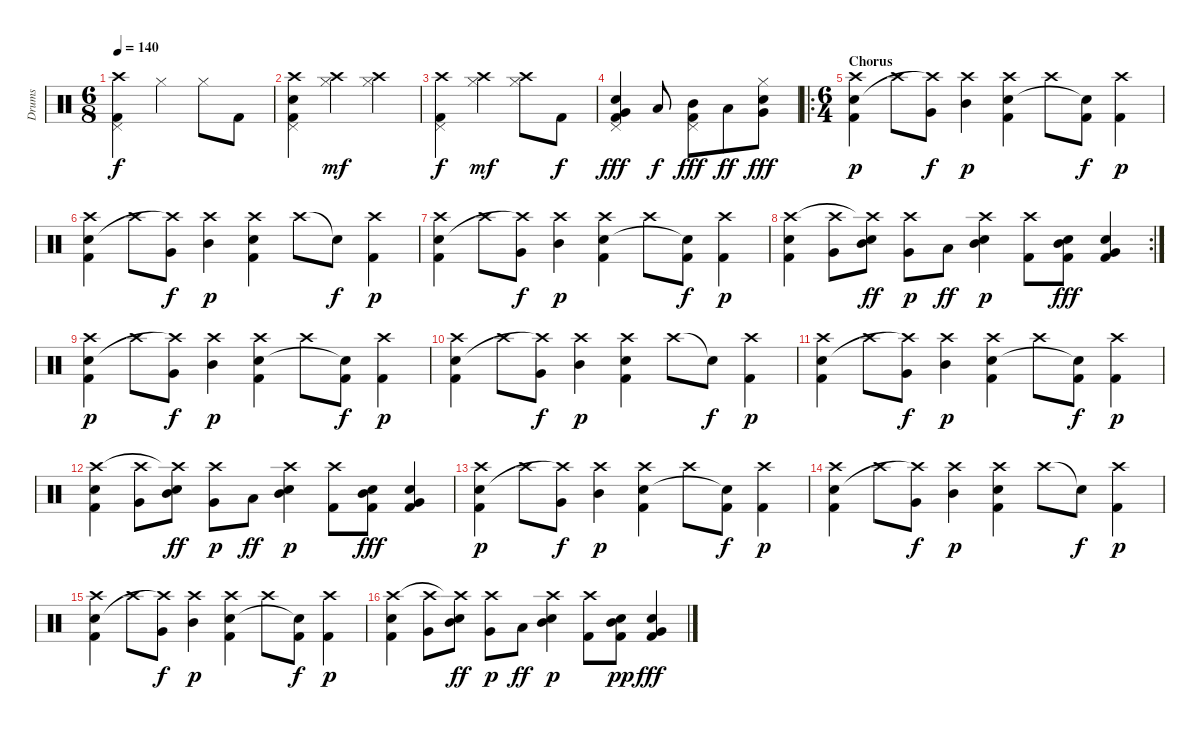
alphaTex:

\track ("Drums" "Drums") {instrument percussion}
\staff {score}
\articulation defaults
\ts (6 8)
\tempo 140
\clef neutral
\ks c
("Crash high (hit)" "Kick (hit) 2" "Pedal Hi-Hat (hit)").4{dy f} "Hi-Hat (closed)".4 "Hi-Hat (closed)".8 "Kick (hit) 2".8 |
("Crash high (hit)" "Electric Snare (hit)" "Kick (hit) 2" "Pedal Hi-Hat (hit)").4 ("Crash high (hit)" "Hi-Hat (closed)").4{dy mf} ("Crash high (hit)" "Hi-Hat (closed)").4 |
("Crash high (hit)" "Kick (hit) 2" "Pedal Hi-Hat (hit)").4{dy f} ("Crash high (hit)" "Hi-Hat (closed)").4{dy mf} ("Crash high (hit)" "Hi-Hat (closed)").8 "Kick (hit) 2".8{dy f} |
("Pedal Hi-Hat (hit)" "Kick (hit) 2" "Electric Snare (hit)" "Very Low Tom (hit)").4{dy fff} "Low Tom (hit)".8{dy f} ("Pedal Hi-Hat (hit)" "Kick (hit) 2" "Mid Tom (hit)").8{dy fff} "Low Floor Tom (hit)".8{dy ff} ("Hi-Hat (closed)" "Electric Snare (hit)" "Very Low Tom (hit)").8{dy fff} |
\ro
\ts (6 4)
\section ("" "Chorus")
("Kick (hit) 2" "Electric Snare (hit)" "Crash high (hit)").4{dy p} "Crash high (hit)".8 ("Very Low Tom (hit)" "Crash high (hit)"{t}).8{dy f} ("Mid Tom (hit)" "Crash high (hit)").4{dy p} ("Kick (hit) 2" "Electric Snare (hit)" "Crash high (hit)").4 "Crash high (hit)".8 ("Kick (hit) 2" "Snare (hit)"{t}).8{dy f} ("Kick (hit) 2" "Crash high (hit)").4{dy p} |
("Kick (hit) 2" "Electric Snare (hit)" "Crash high (hit)").4 "Crash high (hit)".8 ("Very Low Tom (hit)" "Crash high (hit)"{t}).8{dy f} ("Mid Tom (hit)" "Crash high (hit)").4{dy p} ("Kick (hit) 2" "Electric Snare (hit)" "Crash high (hit)").4 "Crash high (hit)".8 "Snare (hit)"{t}.8{dy f} ("Kick (hit) 2" "Crash high (hit)").4{dy p} |
("Kick (hit) 2" "Electric Snare (hit)" "Crash high (hit)").4 "Crash high (hit)".8 ("Very Low Tom (hit)" "Crash high (hit)"{t}).8{dy f} ("Mid Tom (hit)" "Crash high (hit)").4{dy p} ("Kick (hit) 2" "Electric Snare (hit)" "Crash high (hit)").4 "Crash high (hit)".8 ("Kick (hit) 2" "Snare (hit)"{t}).8{dy f} ("Kick (hit) 2" "Crash high (hit)").4{dy p} |
\rc 2
("Kick (hit) 2" "Electric Snare (hit)" "Crash high (hit)").4 ("Very Low Tom (hit)" "Crash high (hit)").8 ("Mid Tom (hit)" "Electric Snare (hit)" "Crash high (hit)"{t}).8{dy ff} ("Very Low Tom (hit)" "Crash high (hit)").8{dy p} "Low Floor Tom (hit)".8{dy ff} ("Mid Tom (hit)" "Electric Snare (hit)" "Crash high (hit)").4{dy p} ("Kick (hit) 2" "Crash high (hit)").8 ("Kick (hit) 2" "Mid Tom (hit)" "Electric Snare (hit)").8{dy fff} ("Kick (hit) 2" "Very Low Tom (hit)" "Electric Snare (hit)").4 |
("Kick (hit) 2" "Electric Snare (hit)" "Crash high (hit)").4{dy p} "Crash high (hit)".8 ("Very Low Tom (hit)" "Crash high (hit)"{t}).8{dy f} ("Mid Tom (hit)" "Crash high (hit)").4{dy p} ("Kick (hit) 2" "Electric Snare (hit)" "Crash high (hit)").4 "Crash high (hit)".8 ("Kick (hit) 2" "Snare (hit)"{t}).8{dy f} ("Kick (hit) 2" "Crash high (hit)").4{dy p} |
("Kick (hit) 2" "Electric Snare (hit)" "Crash high (hit)").4 "Crash high (hit)".8 ("Very Low Tom (hit)" "Crash high (hit)"{t}).8{dy f} ("Mid Tom (hit)" "Crash high (hit)").4{dy p} ("Kick (hit) 2" "Electric Snare (hit)" "Crash high (hit)").4 "Crash high (hit)".8 "Snare (hit)"{t}.8{dy f} ("Kick (hit) 2" "Crash high (hit)").4{dy p} |
("Kick (hit) 2" "Electric Snare (hit)" "Crash high (hit)").4 "Crash high (hit)".8 ("Very Low Tom (hit)" "Crash high (hit)"{t}).8{dy f} ("Mid Tom (hit)" "Crash high (hit)").4{dy p} ("Kick (hit) 2" "Electric Snare (hit)" "Crash high (hit)").4 "Crash high (hit)".8 ("Kick (hit) 2" "Snare (hit)"{t}).8{dy f} ("Kick (hit) 2" "Crash high (hit)").4{dy p} |
("Kick (hit) 2" "Electric Snare (hit)" "Crash high (hit)").4 ("Very Low Tom (hit)" "Crash high (hit)").8 ("Mid Tom (hit)" "Electric Snare (hit)" "Crash high (hit)"{t}).8{dy ff} ("Very Low Tom (hit)" "Crash high (hit)").8{dy p} "Low Floor Tom (hit)".8{dy ff} ("Mid Tom (hit)" "Electric Snare (hit)" "Crash high (hit)").4{dy p} ("Kick (hit) 2" "Crash high (hit)").8 ("Kick (hit) 2" "Mid Tom (hit)" "Electric Snare (hit)").8{dy fff} ("Kick (hit) 2" "Very Low Tom (hit)" "Electric Snare (hit)").4 |
("Kick (hit) 2" "Electric Snare (hit)" "Crash high (hit)").4{dy p} "Crash high (hit)".8 ("Very Low Tom (hit)" "Crash high (hit)"{t}).8{dy f} ("Mid Tom (hit)" "Crash high (hit)").4{dy p} ("Kick (hit) 2" "Electric Snare (hit)" "Crash high (hit)").4 "Crash high (hit)".8 ("Kick (hit) 2" "Snare (hit)"{t}).8{dy f} ("Kick (hit) 2" "Crash high (hit)").4{dy p} |
("Kick (hit) 2" "Electric Snare (hit)" "Crash high (hit)").4 "Crash high (hit)".8 ("Very Low Tom (hit)" "Crash high (hit)"{t}).8{dy f} ("Mid Tom (hit)" "Crash high (hit)").4{dy p} ("Kick (hit) 2" "Electric Snare (hit)" "Crash high (hit)").4 "Crash high (hit)".8 "Snare (hit)"{t}.8{dy f} ("Kick (hit) 2" "Crash high (hit)").4{dy p} |
("Kick (hit) 2" "Electric Snare (hit)" "Crash high (hit)").4 "Crash high (hit)".8 ("Very Low Tom (hit)" "Crash high (hit)"{t}).8{dy f} ("Mid Tom (hit)" "Crash high (hit)").4{dy p} ("Kick (hit) 2" "Electric Snare (hit)" "Crash high (hit)").4 "Crash high (hit)".8 ("Kick (hit) 2" "Snare (hit)"{t}).8{dy f} ("Kick (hit) 2" "Crash high (hit)").4{dy p} |
("Kick (hit) 2" "Electric Snare (hit)" "Crash high (hit)").4 ("Very Low Tom (hit)" "Crash high (hit)").8 ("Mid Tom (hit)" "Electric Snare (hit)" "Crash high (hit)"{t}).8{dy ff} ("Very Low Tom (hit)" "Crash high (hit)").8{dy p} "Low Floor Tom (hit)".8{dy ff} ("Mid Tom (hit)" "Electric Snare (hit)" "Crash high (hit)").4{dy p} ("Kick (hit) 2" "Crash high (hit)").8 ("Kick (hit) 2" "Mid Tom (hit)" "Electric Snare (hit)").8{dy pp} ("Kick (hit) 2" "Very Low Tom (hit)" "Electric Snare (hit)").4{dy fff}
